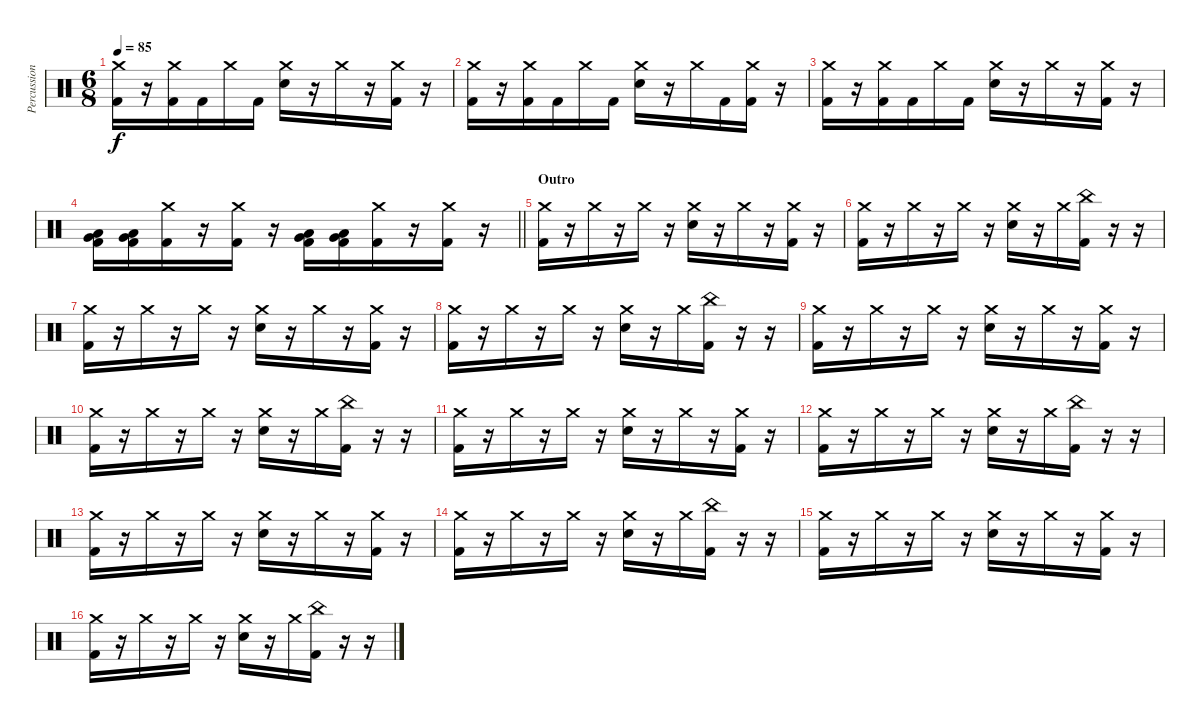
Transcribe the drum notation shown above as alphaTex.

\track ("Percussion" "Percussion") {instrument percussion}
\staff {score}
\articulation defaults
\ts (6 8)
\tempo 85
\clef neutral
\ks c
("Crash medium (hit)" "Kick (hit) 2").16{dy f} r.16 ("Crash medium (hit)" "Kick (hit) 2").16 "Kick (hit) 2".16 "Crash medium (hit)".16 "Kick (hit) 2".16 ("Crash medium (hit)" "Electric Snare (hit)").16 r.16 "Crash medium (hit)".16 r.16 ("Crash medium (hit)" "Kick (hit) 2").16 r.16 |
("Crash medium (hit)" "Kick (hit) 2").16 r.16 ("Crash medium (hit)" "Kick (hit) 2").16 "Kick (hit) 2".16 "Crash medium (hit)".16 "Kick (hit) 2".16 ("Crash medium (hit)" "Electric Snare (hit)").16 r.16 "Crash medium (hit)".16 "Kick (hit) 2".16 ("Crash medium (hit)" "Kick (hit) 2").16 r.16 |
("Crash medium (hit)" "Kick (hit) 2").16 r.16 ("Crash medium (hit)" "Kick (hit) 2").16 "Kick (hit) 2".16 "Crash medium (hit)".16 "Kick (hit) 2".16 ("Crash medium (hit)" "Electric Snare (hit)").16 r.16 "Crash medium (hit)".16 r.16 ("Crash medium (hit)" "Kick (hit) 2").16 r.16 |
\barLineRight lightlight
("Low Tom (hit)" "Very Low Tom (hit)" "Kick (hit) 2").16 ("Low Tom (hit)" "Very Low Tom (hit)" "Kick (hit) 2").16 ("Crash medium (hit)" "Kick (hit) 2").16 r.16 ("Crash medium (hit)" "Kick (hit) 2").16 r.16 ("Low Tom (hit)" "Very Low Tom (hit)" "Kick (hit) 2").16 ("Low Tom (hit)" "Very Low Tom (hit)" "Kick (hit) 2").16 ("Crash medium (hit)" "Kick (hit) 2").16 r.16 ("Crash medium (hit)" "Kick (hit) 2").16 r.16 |
\section ("" "Outro")
("Crash medium (hit)" "Kick (hit) 2").16 r.16 "Crash medium (hit)".16 r.16 "Crash medium (hit)".16 r.16 ("Crash medium (hit)" "Electric Snare (hit)").16 r.16 "Crash medium (hit)".16 r.16 ("Crash medium (hit)" "Kick (hit) 2").16 r.16 |
("Crash medium (hit)" "Kick (hit) 2").16 r.16 "Crash medium (hit)".16 r.16 "Crash medium (hit)".16 r.16 ("Crash medium (hit)" "Electric Snare (hit)").16 r.16 "Crash medium (hit)".16 ("China (hit)" "Kick (hit) 2").16 r.16 r.16 |
("Crash medium (hit)" "Kick (hit) 2").16 r.16 "Crash medium (hit)".16 r.16 "Crash medium (hit)".16 r.16 ("Crash medium (hit)" "Electric Snare (hit)").16 r.16 "Crash medium (hit)".16 r.16 ("Crash medium (hit)" "Kick (hit) 2").16 r.16 |
("Crash medium (hit)" "Kick (hit) 2").16 r.16 "Crash medium (hit)".16 r.16 "Crash medium (hit)".16 r.16 ("Crash medium (hit)" "Electric Snare (hit)").16 r.16 "Crash medium (hit)".16 ("China (hit)" "Kick (hit) 2").16 r.16 r.16 |
("Crash medium (hit)" "Kick (hit) 2").16 r.16 "Crash medium (hit)".16 r.16 "Crash medium (hit)".16 r.16 ("Crash medium (hit)" "Electric Snare (hit)").16 r.16 "Crash medium (hit)".16 r.16 ("Crash medium (hit)" "Kick (hit) 2").16 r.16 |
("Crash medium (hit)" "Kick (hit) 2").16 r.16 "Crash medium (hit)".16 r.16 "Crash medium (hit)".16 r.16 ("Crash medium (hit)" "Electric Snare (hit)").16 r.16 "Crash medium (hit)".16 ("China (hit)" "Kick (hit) 2").16 r.16 r.16 |
("Crash medium (hit)" "Kick (hit) 2").16 r.16 "Crash medium (hit)".16 r.16 "Crash medium (hit)".16 r.16 ("Crash medium (hit)" "Electric Snare (hit)").16 r.16 "Crash medium (hit)".16 r.16 ("Crash medium (hit)" "Kick (hit) 2").16 r.16 |
("Crash medium (hit)" "Kick (hit) 2").16 r.16 "Crash medium (hit)".16 r.16 "Crash medium (hit)".16 r.16 ("Crash medium (hit)" "Electric Snare (hit)").16 r.16 "Crash medium (hit)".16 ("China (hit)" "Kick (hit) 2").16 r.16 r.16 |
("Crash medium (hit)" "Kick (hit) 2").16 r.16 "Crash medium (hit)".16 r.16 "Crash medium (hit)".16 r.16 ("Crash medium (hit)" "Electric Snare (hit)").16 r.16 "Crash medium (hit)".16 r.16 ("Crash medium (hit)" "Kick (hit) 2").16 r.16 |
("Crash medium (hit)" "Kick (hit) 2").16 r.16 "Crash medium (hit)".16 r.16 "Crash medium (hit)".16 r.16 ("Crash medium (hit)" "Electric Snare (hit)").16 r.16 "Crash medium (hit)".16 ("China (hit)" "Kick (hit) 2").16 r.16 r.16 |
("Crash medium (hit)" "Kick (hit) 2").16 r.16 "Crash medium (hit)".16 r.16 "Crash medium (hit)".16 r.16 ("Crash medium (hit)" "Electric Snare (hit)").16 r.16 "Crash medium (hit)".16 r.16 ("Crash medium (hit)" "Kick (hit) 2").16 r.16 |
("Crash medium (hit)" "Kick (hit) 2").16 r.16 "Crash medium (hit)".16 r.16 "Crash medium (hit)".16 r.16 ("Crash medium (hit)" "Electric Snare (hit)").16 r.16 "Crash medium (hit)".16 ("China (hit)" "Kick (hit) 2").16 r.16 r.16
